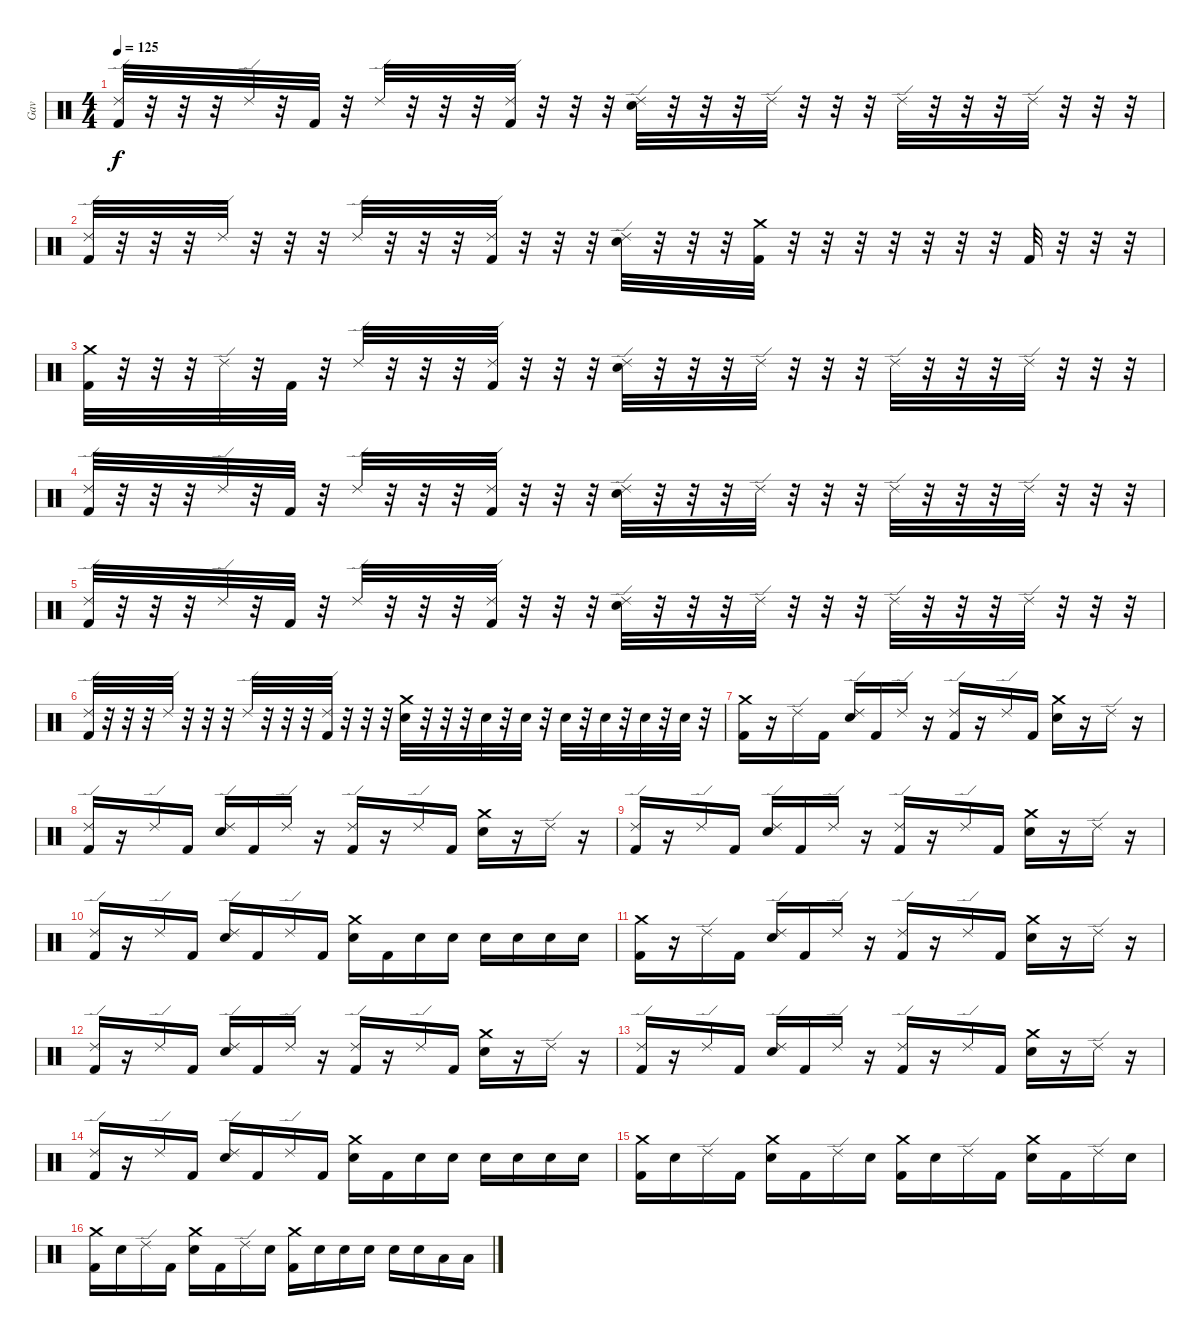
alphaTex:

\track ("Gav" "Gav") {instrument percussion}
\staff {score}
\articulation defaults
\ts (4 4)
\tempo 125
\clef neutral
\ks c
("Ride (edge) 2" "Kick (hit) 2").32{dy f} r.32 r.32 r.32 "Ride (edge) 2".32 r.32 "Kick (hit) 2".32 r.32 "Ride (edge) 2".32 r.32 r.32 r.32 ("Ride (edge) 2" "Kick (hit) 2").32 r.32 r.32 r.32 ("Ride (edge) 2" "Snare (hit) 2").32 r.32 r.32 r.32 "Ride (edge) 2".32 r.32 r.32 r.32 "Ride (edge) 2".32 r.32 r.32 r.32 "Ride (edge) 2".32 r.32 r.32 r.32 |
("Ride (edge) 2" "Kick (hit) 2").32 r.32 r.32 r.32 "Ride (edge) 2".32 r.32 r.32 r.32 "Ride (edge) 2".32 r.32 r.32 r.32 ("Ride (edge) 2" "Kick (hit) 2").32 r.32 r.32 r.32 ("Ride (edge) 2" "Snare (hit) 2").32 r.32 r.32 r.32 ("Crash medium (hit)" "Kick (hit) 2").32 r.32 r.32 r.32 r.32 r.32 r.32 r.32 "Kick (hit) 2".32 r.32 r.32 r.32 |
("Crash medium (hit)" "Kick (hit) 2").32 r.32 r.32 r.32 "Ride (edge) 2".32 r.32 "Kick (hit) 2".32 r.32 "Ride (edge) 2".32 r.32 r.32 r.32 ("Ride (edge) 2" "Kick (hit) 2").32 r.32 r.32 r.32 ("Ride (edge) 2" "Snare (hit) 2").32 r.32 r.32 r.32 "Ride (edge) 2".32 r.32 r.32 r.32 "Ride (edge) 2".32 r.32 r.32 r.32 "Ride (edge) 2".32 r.32 r.32 r.32 |
("Ride (edge) 2" "Kick (hit) 2").32 r.32 r.32 r.32 "Ride (edge) 2".32 r.32 "Kick (hit) 2".32 r.32 "Ride (edge) 2".32 r.32 r.32 r.32 ("Ride (edge) 2" "Kick (hit) 2").32 r.32 r.32 r.32 ("Ride (edge) 2" "Snare (hit) 2").32 r.32 r.32 r.32 "Ride (edge) 2".32 r.32 r.32 r.32 "Ride (edge) 2".32 r.32 r.32 r.32 "Ride (edge) 2".32 r.32 r.32 r.32 |
("Ride (edge) 2" "Kick (hit) 2").32 r.32 r.32 r.32 "Ride (edge) 2".32 r.32 "Kick (hit) 2".32 r.32 "Ride (edge) 2".32 r.32 r.32 r.32 ("Ride (edge) 2" "Kick (hit) 2").32 r.32 r.32 r.32 ("Ride (edge) 2" "Snare (hit) 2").32 r.32 r.32 r.32 "Ride (edge) 2".32 r.32 r.32 r.32 "Ride (edge) 2".32 r.32 r.32 r.32 "Ride (edge) 2".32 r.32 r.32 r.32 |
("Ride (edge) 2" "Kick (hit) 2").32 r.32 r.32 r.32 "Ride (edge) 2".32 r.32 r.32 r.32 "Ride (edge) 2".32 r.32 r.32 r.32 ("Ride (edge) 2" "Kick (hit) 2").32 r.32 r.32 r.32 ("Crash medium (hit)" "Snare (hit) 2").32 r.32 r.32 r.32 "Snare (hit) 2".32 r.32 "Snare (hit) 2".32 r.32 "Snare (hit) 2".32 r.32 "Snare (hit) 2".32 r.32 "Snare (hit) 2".32 r.32 "Snare (hit) 2".32 r.32 |
("Crash medium (hit)" "Kick (hit) 2").16 r.16 "Ride (edge) 2".16 "Kick (hit) 2".16 ("Ride (edge) 2" "Snare (hit) 2").16 "Kick (hit) 2".16 "Ride (edge) 2".16 r.16 ("Ride (edge) 2" "Kick (hit) 2").16 r.16 "Ride (edge) 2".16 "Kick (hit) 2".16 ("Crash medium (hit)" "Snare (hit) 2").16 r.16 "Ride (edge) 2".16 r.16 |
("Ride (edge) 2" "Kick (hit) 2").16 r.16 "Ride (edge) 2".16 "Kick (hit) 2".16 ("Ride (edge) 2" "Snare (hit) 2").16 "Kick (hit) 2".16 "Ride (edge) 2".16 r.16 ("Ride (edge) 2" "Kick (hit) 2").16 r.16 "Ride (edge) 2".16 "Kick (hit) 2".16 ("Crash medium (hit)" "Snare (hit) 2").16 r.16 "Ride (edge) 2".16 r.16 |
("Ride (edge) 2" "Kick (hit) 2").16 r.16 "Ride (edge) 2".16 "Kick (hit) 2".16 ("Ride (edge) 2" "Snare (hit) 2").16 "Kick (hit) 2".16 "Ride (edge) 2".16 r.16 ("Ride (edge) 2" "Kick (hit) 2").16 r.16 "Ride (edge) 2".16 "Kick (hit) 2".16 ("Crash medium (hit)" "Snare (hit) 2").16 r.16 "Ride (edge) 2".16 r.16 |
("Ride (edge) 2" "Kick (hit) 2").16 r.16 "Ride (edge) 2".16 "Kick (hit) 2".16 ("Ride (edge) 2" "Snare (hit) 2").16 "Kick (hit) 2".16 "Ride (edge) 2".16 "Kick (hit) 2".16 ("Crash medium (hit)" "Snare (hit) 2").16 "Kick (hit) 2".16 "Snare (hit) 2".16 "Snare (hit) 2".16 "Snare (hit) 2".16 "Snare (hit) 2".16 "Snare (hit) 2".16 "Snare (hit) 2".16 |
("Crash medium (hit)" "Kick (hit) 2").16 r.16 "Ride (edge) 2".16 "Kick (hit) 2".16 ("Ride (edge) 2" "Snare (hit) 2").16 "Kick (hit) 2".16 "Ride (edge) 2".16 r.16 ("Ride (edge) 2" "Kick (hit) 2").16 r.16 "Ride (edge) 2".16 "Kick (hit) 2".16 ("Crash medium (hit)" "Snare (hit) 2").16 r.16 "Ride (edge) 2".16 r.16 |
("Ride (edge) 2" "Kick (hit) 2").16 r.16 "Ride (edge) 2".16 "Kick (hit) 2".16 ("Ride (edge) 2" "Snare (hit) 2").16 "Kick (hit) 2".16 "Ride (edge) 2".16 r.16 ("Ride (edge) 2" "Kick (hit) 2").16 r.16 "Ride (edge) 2".16 "Kick (hit) 2".16 ("Crash medium (hit)" "Snare (hit) 2").16 r.16 "Ride (edge) 2".16 r.16 |
("Ride (edge) 2" "Kick (hit) 2").16 r.16 "Ride (edge) 2".16 "Kick (hit) 2".16 ("Ride (edge) 2" "Snare (hit) 2").16 "Kick (hit) 2".16 "Ride (edge) 2".16 r.16 ("Ride (edge) 2" "Kick (hit) 2").16 r.16 "Ride (edge) 2".16 "Kick (hit) 2".16 ("Crash medium (hit)" "Snare (hit) 2").16 r.16 "Ride (edge) 2".16 r.16 |
("Ride (edge) 2" "Kick (hit) 2").16 r.16 "Ride (edge) 2".16 "Kick (hit) 2".16 ("Ride (edge) 2" "Snare (hit) 2").16 "Kick (hit) 2".16 "Ride (edge) 2".16 "Kick (hit) 2".16 ("Crash medium (hit)" "Snare (hit) 2").16 "Kick (hit) 2".16 "Snare (hit) 2".16 "Snare (hit) 2".16 "Snare (hit) 2".16 "Snare (hit) 2".16 "Snare (hit) 2".16 "Snare (hit) 2".16 |
("Crash medium (hit)" "Kick (hit) 2").16 "Snare (hit) 2".16 "Ride (edge) 2".16 "Kick (hit) 2".16 ("Crash medium (hit)" "Snare (hit) 2").16 "Kick (hit) 2".16 "Ride (edge) 2".16 "Snare (hit) 2".16 ("Crash medium (hit)" "Kick (hit) 2").16 "Snare (hit) 2".16 "Ride (edge) 2".16 "Kick (hit) 2".16 ("Crash medium (hit)" "Snare (hit) 2").16 "Kick (hit) 2".16 "Ride (edge) 2".16 "Snare (hit) 2".16 |
("Crash medium (hit)" "Kick (hit) 2").16 "Snare (hit) 2".16 "Ride (edge) 2".16 "Kick (hit) 2".16 ("Crash medium (hit)" "Snare (hit) 2").16 "Kick (hit) 2".16 "Ride (edge) 2".16 "Snare (hit) 2".16 ("Crash medium (hit)" "Kick (hit) 2").16 "Snare (hit) 2".16 "Snare (hit) 2".16 "Snare (hit) 2".16 "Snare (hit) 2".16 "Snare (hit) 2".16 "Low Tom (hit)".16 "Low Tom (hit)".16
